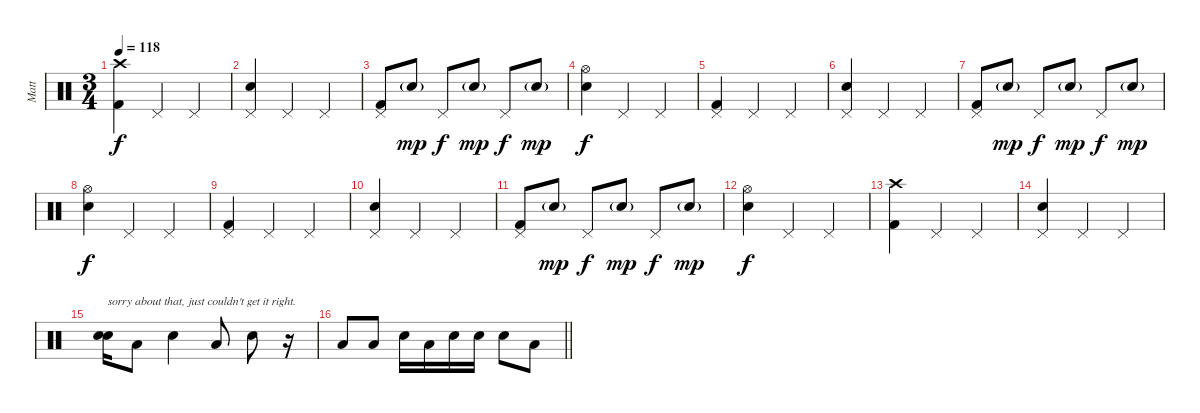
\track ("Matt" "Matt") {instrument percussion}
\staff {score}
\articulation defaults
\ts (3 4)
\tempo 118
\clef neutral
\ks c
("Crash high (hit)" "Kick (hit) 2").4{dy f} "Pedal Hi-Hat (hit)".4 "Pedal Hi-Hat (hit)".4 |
("Pedal Hi-Hat (hit)" "Snare (hit) 2").4 "Pedal Hi-Hat (hit)".4 "Pedal Hi-Hat (hit)".4 |
("Pedal Hi-Hat (hit)" "Kick (hit) 2").8 "Snare (hit) 2"{g}.8{dy mp} "Pedal Hi-Hat (hit)".8{dy f} "Snare (hit) 2"{g}.8{dy mp} "Pedal Hi-Hat (hit)".8{dy f} "Snare (hit) 2"{g}.8{dy mp} |
("Hi-Hat (open)" "Snare (hit) 2").4{dy f} "Pedal Hi-Hat (hit)".4 "Pedal Hi-Hat (hit)".4 |
("Pedal Hi-Hat (hit)" "Kick (hit) 2").4 "Pedal Hi-Hat (hit)".4 "Pedal Hi-Hat (hit)".4 |
("Pedal Hi-Hat (hit)" "Snare (hit) 2").4 "Pedal Hi-Hat (hit)".4 "Pedal Hi-Hat (hit)".4 |
("Pedal Hi-Hat (hit)" "Kick (hit) 2").8 "Snare (hit) 2"{g}.8{dy mp} "Pedal Hi-Hat (hit)".8{dy f} "Snare (hit) 2"{g}.8{dy mp} "Pedal Hi-Hat (hit)".8{dy f} "Snare (hit) 2"{g}.8{dy mp} |
("Hi-Hat (open)" "Snare (hit) 2").4{dy f} "Pedal Hi-Hat (hit)".4 "Pedal Hi-Hat (hit)".4 |
("Pedal Hi-Hat (hit)" "Kick (hit) 2").4 "Pedal Hi-Hat (hit)".4 "Pedal Hi-Hat (hit)".4 |
("Pedal Hi-Hat (hit)" "Snare (hit) 2").4 "Pedal Hi-Hat (hit)".4 "Pedal Hi-Hat (hit)".4 |
("Pedal Hi-Hat (hit)" "Kick (hit) 2").8 "Snare (hit) 2"{g}.8{dy mp} "Pedal Hi-Hat (hit)".8{dy f} "Snare (hit) 2"{g}.8{dy mp} "Pedal Hi-Hat (hit)".8{dy f} "Snare (hit) 2"{g}.8{dy mp} |
("Hi-Hat (open)" "Electric Snare (hit)").4{dy f} "Pedal Hi-Hat (hit)".4 "Pedal Hi-Hat (hit)".4 |
("Crash high (hit)" "Kick (hit) 2").4 "Pedal Hi-Hat (hit)".4 "Pedal Hi-Hat (hit)".4 |
("Pedal Hi-Hat (hit)" "Snare (hit) 2").4 "Pedal Hi-Hat (hit)".4 "Pedal Hi-Hat (hit)".4 |
("Snare (hit) 2" "Snare (hit) 2").16{bd 480 txt "sorry about that, just couldn't get it right."} "Low Tom (hit)".8 "Electric Snare (hit)".4 "Low Tom (hit)".8 "Electric Snare (hit)".8 r.16 |
\barLineRight lightlight "Low Floor Tom (hit)".8 "Low Floor Tom (hit)".8 "Electric Snare (hit)".16 "Low Floor Tom (hit)".16 "Electric Snare (hit)".16 "Electric Snare (hit)".16 "Electric Snare (hit)".8 "Low Floor Tom (hit)".8
